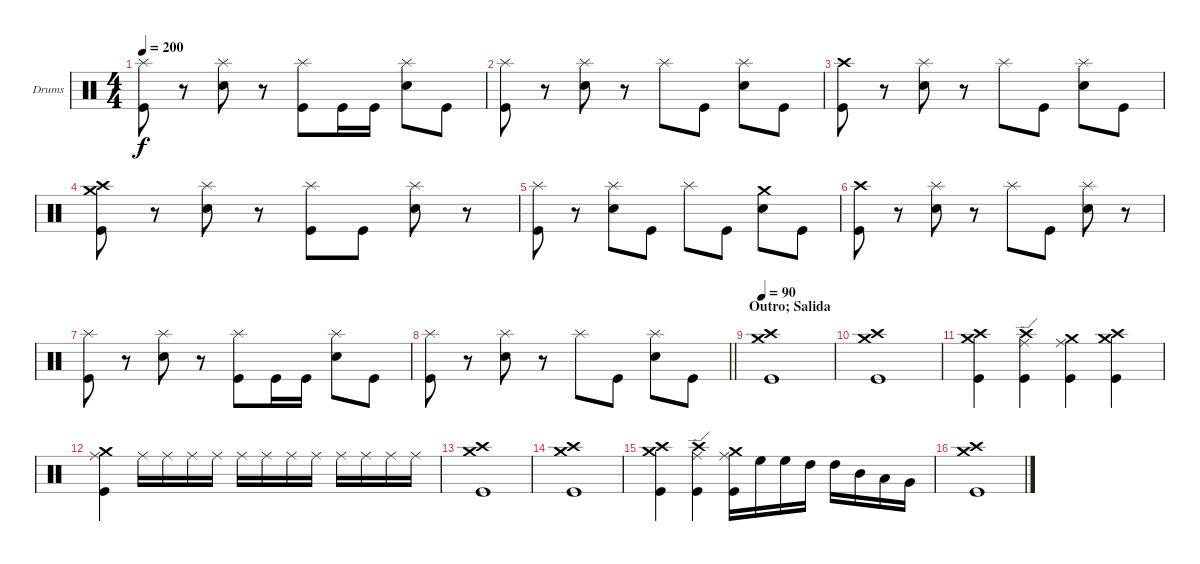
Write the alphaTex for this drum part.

\bracketExtendMode groupsimilarinstruments
\firstSystemTrackNameOrientation horizontal
\otherSystemsTrackNameOrientation horizontal
\track ("Drumkit" "Drums") {instrument percussion}
\staff {score}
\articulation defaults
\ts (4 4)
\tempo 200
\clef neutral
\ks c
("Splash (hit)" "Kick (hit)").8{dy f} r.8 ("Splash (hit)" "Snare (hit) 2").8 r.8 ("Splash (hit)" "Kick (hit)").8 "Kick (hit)".16 "Kick (hit)".16 ("Splash (hit)" "Snare (hit) 2").8 "Kick (hit)".8 |
("Splash (hit)" "Kick (hit)").8 r.8 ("Splash (hit)" "Snare (hit) 2").8 r.8 "Splash (hit)".8 "Kick (hit)".8 ("Splash (hit)" "Snare (hit) 2").8 "Kick (hit)".8 |
("Crash high (hit)" "Kick (hit)").8 r.8 ("Splash (hit)" "Snare (hit) 2").8 r.8 "Splash (hit)".8 "Kick (hit)".8 ("Splash (hit)" "Snare (hit) 2").8 "Kick (hit)".8 |
("Crash medium (hit)" "Crash high (hit)" "Kick (hit)").8 r.8 ("Splash (hit)" "Snare (hit) 2").8 r.8 ("Splash (hit)" "Kick (hit)").8 "Kick (hit)".8 ("Splash (hit)" "Snare (hit) 2").8 r.8 |
("Splash (hit)" "Kick (hit)").8 r.8 ("Splash (hit)" "Snare (hit) 2").8 "Kick (hit)".8 "Splash (hit)".8 "Kick (hit)".8 ("Crash medium (hit)" "Snare (hit) 2").8 "Kick (hit)".8 |
("Crash high (hit)" "Kick (hit)").8 r.8 ("Splash (hit)" "Snare (hit) 2").8 r.8 "Splash (hit)".8 "Kick (hit)".8 ("Splash (hit)" "Snare (hit) 2").8 r.8 |
("Splash (hit)" "Kick (hit)").8 r.8 ("Splash (hit)" "Snare (hit) 2").8 r.8 ("Splash (hit)" "Kick (hit)").8 "Kick (hit)".16 "Kick (hit)".16 ("Splash (hit)" "Snare (hit) 2").8 "Kick (hit)".8 |
\barLineRight lightlight
("Splash (hit)" "Kick (hit)").8 r.8 ("Splash (hit)" "Snare (hit) 2").8 r.8 "Splash (hit)".8 "Kick (hit)".8 ("Splash (hit)" "Snare (hit) 2").8 "Kick (hit)".8 |
\section ("" "Outro; Salida")
\tempo 90
("Crash high (hit)" "Crash medium (hit)" "Kick (hit)").1 |
("Crash high (hit)" "Crash medium (hit)" "Kick (hit)").1 |
("Crash high (hit)" "Crash medium (hit)" "Kick (hit)").4 ("Crash high (hit)" "Ride (edge)" "Kick (hit)").4 ("Ride (middle)" "Crash medium (hit)" "Kick (hit)").4 ("Crash high (hit)" "Crash medium (hit)" "Kick (hit)").4 |
("Ride (middle)" "Crash medium (hit)" "Kick (hit)").4 "Ride (middle)".16 "Ride (middle)".16 "Ride (middle)".16 "Ride (middle)".16 "Ride (middle)".16 "Ride (middle)".16 "Ride (middle)".16 "Ride (middle)".16 "Ride (middle)".16 "Ride (middle)".16 "Ride (middle)".16 "Ride (middle)".16 |
("Crash high (hit)" "Crash medium (hit)" "Kick (hit)").1 |
("Crash high (hit)" "Crash medium (hit)" "Kick (hit)").1 |
("Crash high (hit)" "Crash medium (hit)" "Kick (hit)").4 ("Crash high (hit)" "Ride (edge)" "Kick (hit)").4 ("Ride (middle)" "Crash medium (hit)" "Kick (hit)").16 "High Floor Tom (hit)".16 "High Floor Tom (hit)".16 "High Tom (hit)".16 "High Tom (hit)".16 "Mid Tom (hit)".16 "Low Tom (hit)".16 "Very Low Tom (hit)".16 |
("Crash high (hit)" "Crash medium (hit)" "Kick (hit)").1
